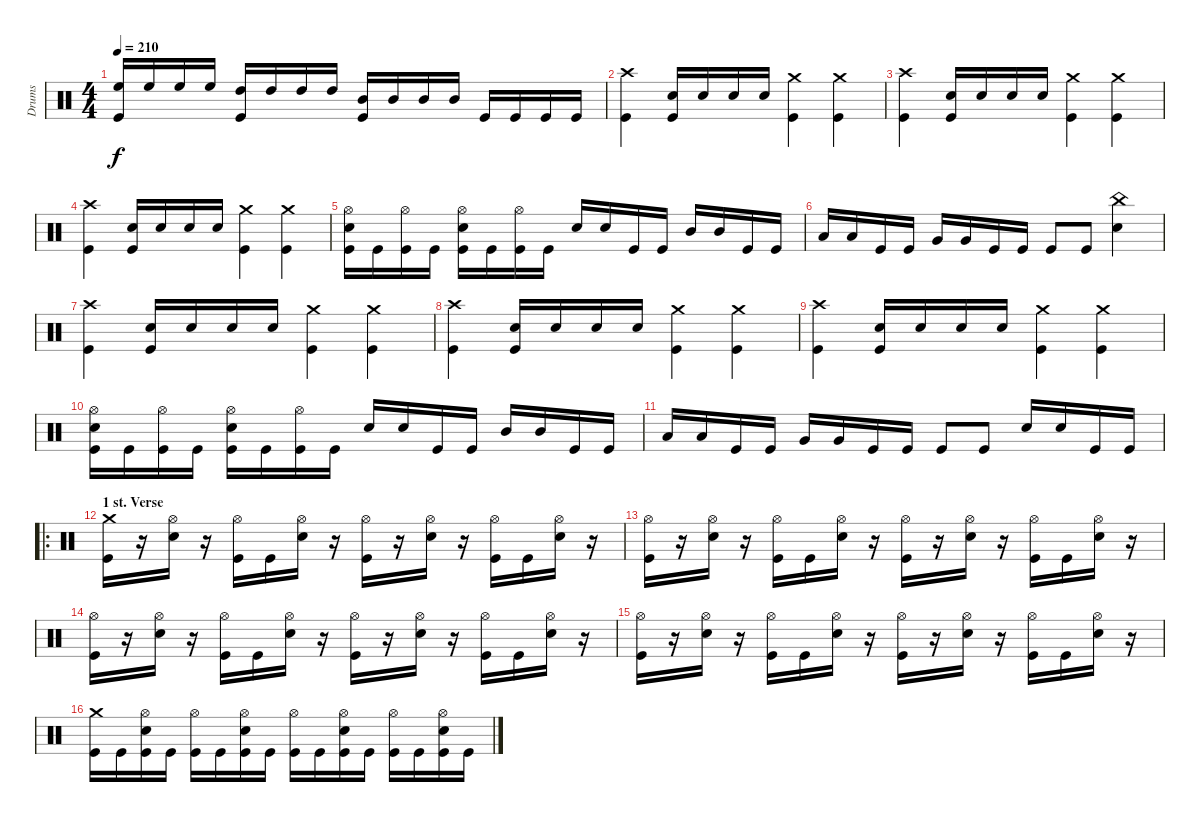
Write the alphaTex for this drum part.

\track ("Drums" "Drums") {instrument percussion}
\staff {score}
\articulation defaults
\ts (4 4)
\tempo 210
\clef neutral
\ks c
("High Floor Tom (hit)" "Kick (hit)").16{dy f} "High Floor Tom (hit)".16 "High Floor Tom (hit)".16 "High Floor Tom (hit)".16 ("High Tom (hit)" "Kick (hit)").16 "High Tom (hit)".16 "High Tom (hit)".16 "High Tom (hit)".16 ("Mid Tom (hit)" "Kick (hit)").16 "Mid Tom (hit)".16 "Mid Tom (hit)".16 "Mid Tom (hit)".16 "Kick (hit)".16 "Kick (hit)".16 "Kick (hit)".16 "Kick (hit)".16 |
("Crash high (hit)" "Kick (hit)").4 ("Electric Snare (hit)" "Kick (hit)").16 "Electric Snare (hit)".16 "Electric Snare (hit)".16 "Electric Snare (hit)".16 ("Crash medium (hit)" "Kick (hit)").4 ("Crash medium (hit)" "Kick (hit)").4 |
("Crash high (hit)" "Kick (hit)").4 ("Electric Snare (hit)" "Kick (hit)").16 "Electric Snare (hit)".16 "Electric Snare (hit)".16 "Electric Snare (hit)".16 ("Crash medium (hit)" "Kick (hit)").4 ("Crash medium (hit)" "Kick (hit)").4 |
("Crash high (hit)" "Kick (hit)").4 ("Electric Snare (hit)" "Kick (hit)").16 "Electric Snare (hit)".16 "Electric Snare (hit)".16 "Electric Snare (hit)".16 ("Crash medium (hit)" "Kick (hit)").4 ("Crash medium (hit)" "Kick (hit)").4 |
("Hi-Hat (open)" "Electric Snare (hit)" "Kick (hit)").16 "Kick (hit)".16 ("Hi-Hat (open)" "Kick (hit)").16 "Kick (hit)".16 ("Hi-Hat (open)" "Electric Snare (hit)" "Kick (hit)").16 "Kick (hit)".16 ("Hi-Hat (open)" "Kick (hit)").16 "Kick (hit)".16 "Electric Snare (hit)".16 "Electric Snare (hit)".16 "Kick (hit)".16 "Kick (hit)".16 "Mid Tom (hit)".16 "Mid Tom (hit)".16 "Kick (hit)".16 "Kick (hit)".16 |
"Low Tom (hit)".16 "Low Tom (hit)".16 "Kick (hit)".16 "Kick (hit)".16 "Very Low Tom (hit)".16 "Very Low Tom (hit)".16 "Kick (hit)".16 "Kick (hit)".16 "Kick (hit)".8 "Kick (hit)".8 ("China (hit)" "Electric Snare (hit)").4 |
("Crash high (hit)" "Kick (hit)").4 ("Electric Snare (hit)" "Kick (hit)").16 "Electric Snare (hit)".16 "Electric Snare (hit)".16 "Electric Snare (hit)".16 ("Crash medium (hit)" "Kick (hit)").4 ("Crash medium (hit)" "Kick (hit)").4 |
("Crash high (hit)" "Kick (hit)").4 ("Electric Snare (hit)" "Kick (hit)").16 "Electric Snare (hit)".16 "Electric Snare (hit)".16 "Electric Snare (hit)".16 ("Crash medium (hit)" "Kick (hit)").4 ("Crash medium (hit)" "Kick (hit)").4 |
("Crash high (hit)" "Kick (hit)").4 ("Electric Snare (hit)" "Kick (hit)").16 "Electric Snare (hit)".16 "Electric Snare (hit)".16 "Electric Snare (hit)".16 ("Crash medium (hit)" "Kick (hit)").4 ("Crash medium (hit)" "Kick (hit)").4 |
("Hi-Hat (open)" "Electric Snare (hit)" "Kick (hit)").16 "Kick (hit)".16 ("Hi-Hat (open)" "Kick (hit)").16 "Kick (hit)".16 ("Hi-Hat (open)" "Electric Snare (hit)" "Kick (hit)").16 "Kick (hit)".16 ("Hi-Hat (open)" "Kick (hit)").16 "Kick (hit)".16 "Electric Snare (hit)".16 "Electric Snare (hit)".16 "Kick (hit)".16 "Kick (hit)".16 "Mid Tom (hit)".16 "Mid Tom (hit)".16 "Kick (hit)".16 "Kick (hit)".16 |
"Low Tom (hit)".16 "Low Tom (hit)".16 "Kick (hit)".16 "Kick (hit)".16 "Very Low Tom (hit)".16 "Very Low Tom (hit)".16 "Kick (hit)".16 "Kick (hit)".16 "Kick (hit)".8 "Kick (hit)".8 "Electric Snare (hit)".16 "Electric Snare (hit)".16 "Kick (hit)".16 "Kick (hit)".16 |
\ro
\section ("" "1 st. Verse")
("Crash medium (hit)" "Kick (hit)").16 r.16 ("Hi-Hat (open)" "Electric Snare (hit)").16 r.16 ("Hi-Hat (open)" "Kick (hit)").16 "Kick (hit)".16 ("Hi-Hat (open)" "Electric Snare (hit)").16 r.16 ("Hi-Hat (open)" "Kick (hit)").16 r.16 ("Hi-Hat (open)" "Electric Snare (hit)").16 r.16 ("Hi-Hat (open)" "Kick (hit)").16 "Kick (hit)".16 ("Hi-Hat (open)" "Electric Snare (hit)").16 r.16 |
("Hi-Hat (open)" "Kick (hit)").16 r.16 ("Hi-Hat (open)" "Electric Snare (hit)").16 r.16 ("Hi-Hat (open)" "Kick (hit)").16 "Kick (hit)".16 ("Hi-Hat (open)" "Electric Snare (hit)").16 r.16 ("Hi-Hat (open)" "Kick (hit)").16 r.16 ("Hi-Hat (open)" "Electric Snare (hit)").16 r.16 ("Hi-Hat (open)" "Kick (hit)").16 "Kick (hit)".16 ("Hi-Hat (open)" "Electric Snare (hit)").16 r.16 |
("Hi-Hat (open)" "Kick (hit)").16 r.16 ("Hi-Hat (open)" "Electric Snare (hit)").16 r.16 ("Hi-Hat (open)" "Kick (hit)").16 "Kick (hit)".16 ("Hi-Hat (open)" "Electric Snare (hit)").16 r.16 ("Hi-Hat (open)" "Kick (hit)").16 r.16 ("Hi-Hat (open)" "Electric Snare (hit)").16 r.16 ("Hi-Hat (open)" "Kick (hit)").16 "Kick (hit)".16 ("Hi-Hat (open)" "Electric Snare (hit)").16 r.16 |
("Hi-Hat (open)" "Kick (hit)").16 r.16 ("Hi-Hat (open)" "Electric Snare (hit)").16 r.16 ("Hi-Hat (open)" "Kick (hit)").16 "Kick (hit)".16 ("Hi-Hat (open)" "Electric Snare (hit)").16 r.16 ("Hi-Hat (open)" "Kick (hit)").16 r.16 ("Hi-Hat (open)" "Electric Snare (hit)").16 r.16 ("Hi-Hat (open)" "Kick (hit)").16 "Kick (hit)".16 ("Hi-Hat (open)" "Electric Snare (hit)").16 r.16 |
("Crash medium (hit)" "Kick (hit)").16 "Kick (hit)".16 ("Hi-Hat (open)" "Electric Snare (hit)" "Kick (hit)").16 "Kick (hit)".16 ("Hi-Hat (open)" "Kick (hit)").16 "Kick (hit)".16 ("Hi-Hat (open)" "Electric Snare (hit)" "Kick (hit)").16 "Kick (hit)".16 ("Hi-Hat (open)" "Kick (hit)").16 "Kick (hit)".16 ("Hi-Hat (open)" "Electric Snare (hit)" "Kick (hit)").16 "Kick (hit)".16 ("Hi-Hat (open)" "Kick (hit)").16 "Kick (hit)".16 ("Hi-Hat (open)" "Electric Snare (hit)" "Kick (hit)").16 "Kick (hit)".16
